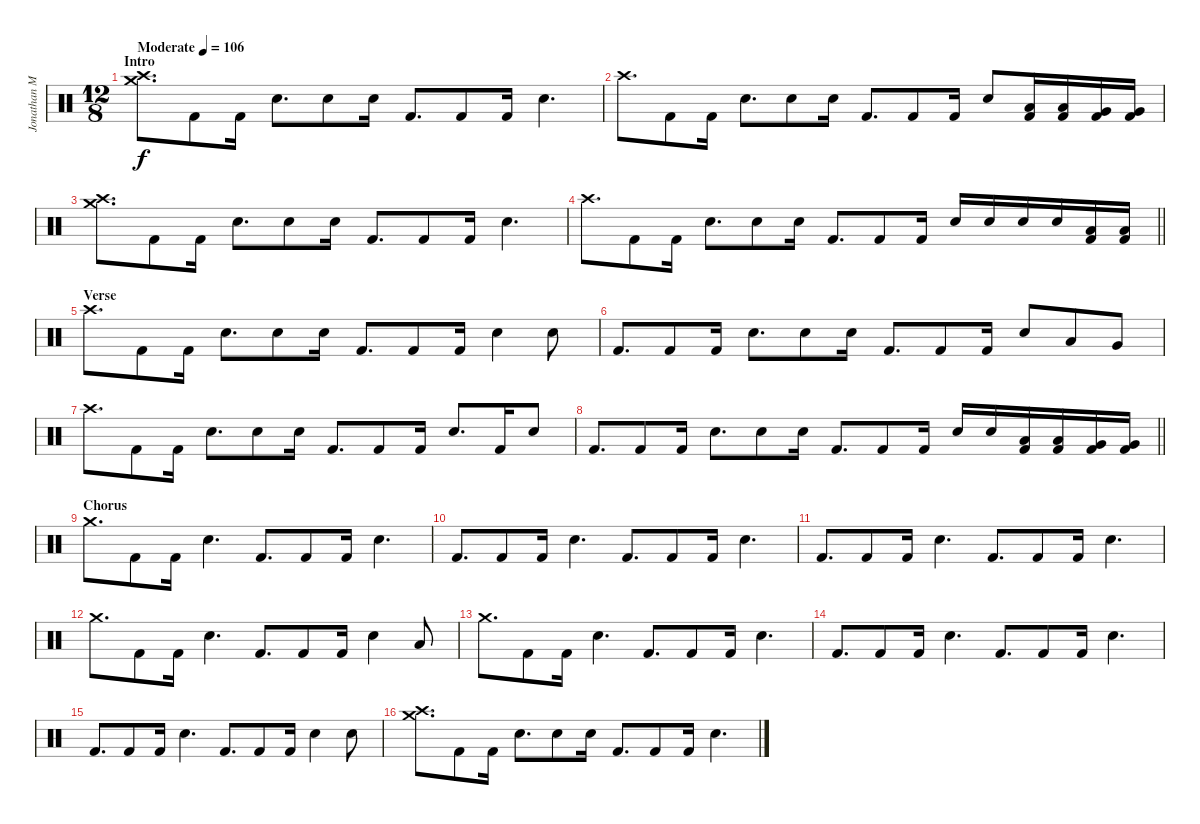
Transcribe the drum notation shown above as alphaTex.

\track ("Jonathan Mover (Studio Drummer)" "Jonathan M") {instrument percussion}
\staff {score}
\articulation defaults
\ts (12 8)
\section ("" "Intro")
\tempo (106 "Moderate")
\clef neutral
\ks c
("Crash high (hit)" "Crash medium (hit)").8{d dy f} "Kick (hit) 2".8 "Kick (hit) 2".16 "Electric Snare (hit)".8{d} "Electric Snare (hit)".8 "Electric Snare (hit)".16 "Kick (hit) 2".8{d} "Kick (hit) 2".8 "Kick (hit) 2".16 "Electric Snare (hit)".4{d} |
"Crash high (hit)".8{d} "Kick (hit) 2".8 "Kick (hit) 2".16 "Electric Snare (hit)".8{d} "Electric Snare (hit)".8 "Electric Snare (hit)".16 "Kick (hit) 2".8{d} "Kick (hit) 2".8 "Kick (hit) 2".16 "Electric Snare (hit)".8 ("Low Tom (hit)" "Kick (hit) 2").16 ("Low Tom (hit)" "Kick (hit) 2").16 ("Very Low Tom (hit)" "Kick (hit) 2").16 ("Very Low Tom (hit)" "Kick (hit) 2").16 |
("Crash high (hit)" "Crash medium (hit)").8{d} "Kick (hit) 2".8 "Kick (hit) 2".16 "Electric Snare (hit)".8{d} "Electric Snare (hit)".8 "Electric Snare (hit)".16 "Kick (hit) 2".8{d} "Kick (hit) 2".8 "Kick (hit) 2".16 "Electric Snare (hit)".4{d} |
\barLineRight lightlight "Crash high (hit)".8{d} "Kick (hit) 2".8 "Kick (hit) 2".16 "Electric Snare (hit)".8{d} "Electric Snare (hit)".8 "Electric Snare (hit)".16 "Kick (hit) 2".8{d} "Kick (hit) 2".8 "Kick (hit) 2".16 "Electric Snare (hit)".16 "Electric Snare (hit)".16 "Snare (hit) 2".16 "Snare (hit) 2".16
("Low Tom (hit)" "Kick (hit) 2").16 ("Low Tom (hit)" "Kick (hit) 2").16 |
\section ("" "Verse")
"Crash high (hit)".8{d} "Kick (hit) 2".8 "Kick (hit) 2".16 "Electric Snare (hit)".8{d} "Electric Snare (hit)".8 "Electric Snare (hit)".16 "Kick (hit) 2".8{d} "Kick (hit) 2".8 "Kick (hit) 2".16 "Electric Snare (hit)".4 "Electric Snare (hit)".8 |
"Kick (hit) 2".8{d} "Kick (hit) 2".8 "Kick (hit) 2".16 "Electric Snare (hit)".8{d} "Electric Snare (hit)".8 "Electric Snare (hit)".16 "Kick (hit) 2".8{d} "Kick (hit) 2".8 "Kick (hit) 2".16 "Electric Snare (hit)".8 "Low Tom (hit)".8 "Very Low Tom (hit)".8 |
"Crash high (hit)".8{d} "Kick (hit) 2".8 "Kick (hit) 2".16 "Electric Snare (hit)".8{d} "Electric Snare (hit)".8 "Electric Snare (hit)".16 "Kick (hit) 2".8{d} "Kick (hit) 2".8 "Kick (hit) 2".16 "Electric Snare (hit)".8{d} "Kick (hit) 2".16 "Electric Snare (hit)".8 |
\barLineRight lightlight "Kick (hit) 2".8{d} "Kick (hit) 2".8 "Kick (hit) 2".16 "Electric Snare (hit)".8{d} "Electric Snare (hit)".8 "Electric Snare (hit)".16 "Kick (hit) 2".8{d} "Kick (hit) 2".8 "Kick (hit) 2".16 "Snare (hit) 2".16 "Snare (hit) 2".16
("Low Tom (hit)" "Kick (hit) 2").16 ("Low Tom (hit)" "Kick (hit) 2").16 ("Very Low Tom (hit)" "Kick (hit) 2").16 ("Very Low Tom (hit)" "Kick (hit) 2").16 |
\section ("" "Chorus")
"Crash medium (hit)".8{d} "Kick (hit) 2".8 "Kick (hit) 2".16 "Electric Snare (hit)".4{d} "Kick (hit) 2".8{d} "Kick (hit) 2".8 "Kick (hit) 2".16 "Electric Snare (hit)".4{d} |
"Kick (hit) 2".8{d} "Kick (hit) 2".8 "Kick (hit) 2".16 "Electric Snare (hit)".4{d} "Kick (hit) 2".8{d} "Kick (hit) 2".8 "Kick (hit) 2".16 "Electric Snare (hit)".4{d} |
"Kick (hit) 2".8{d} "Kick (hit) 2".8 "Kick (hit) 2".16 "Electric Snare (hit)".4{d} "Kick (hit) 2".8{d} "Kick (hit) 2".8 "Kick (hit) 2".16 "Electric Snare (hit)".4{d} |
"Crash medium (hit)".8{d} "Kick (hit) 2".8 "Kick (hit) 2".16 "Electric Snare (hit)".4{d} "Kick (hit) 2".8{d} "Kick (hit) 2".8 "Kick (hit) 2".16 "Electric Snare (hit)".4 "Low Tom (hit)".8 |
"Crash medium (hit)".8{d} "Kick (hit) 2".8 "Kick (hit) 2".16 "Electric Snare (hit)".4{d} "Kick (hit) 2".8{d} "Kick (hit) 2".8 "Kick (hit) 2".16 "Electric Snare (hit)".4{d} |
"Kick (hit) 2".8{d} "Kick (hit) 2".8 "Kick (hit) 2".16 "Electric Snare (hit)".4{d} "Kick (hit) 2".8{d} "Kick (hit) 2".8 "Kick (hit) 2".16 "Electric Snare (hit)".4{d} |
"Kick (hit) 2".8{d} "Kick (hit) 2".8 "Kick (hit) 2".16 "Electric Snare (hit)".4{d} "Kick (hit) 2".8{d} "Kick (hit) 2".8 "Kick (hit) 2".16 "Electric Snare (hit)".4 "Electric Snare (hit)".8 |
("Crash high (hit)" "Crash medium (hit)").8{d} "Kick (hit) 2".8 "Kick (hit) 2".16 "Electric Snare (hit)".8{d} "Electric Snare (hit)".8 "Electric Snare (hit)".16 "Kick (hit) 2".8{d} "Kick (hit) 2".8 "Kick (hit) 2".16 "Electric Snare (hit)".4{d}
